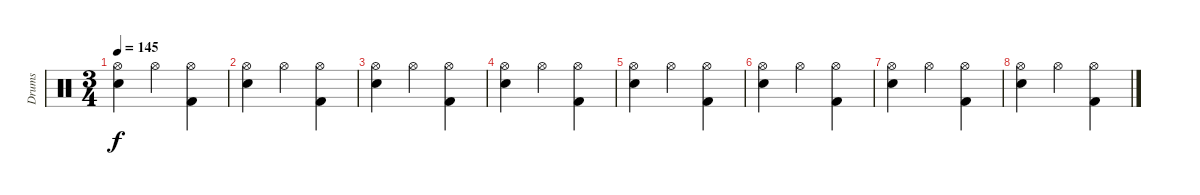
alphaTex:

\track ("Drums" "Drums") {instrument percussion}
\staff {score}
\articulation defaults
\ts (3 4)
\tempo 145
\clef neutral
\ks c
("Hi-Hat (open)" "Electric Snare (hit)").4{dy f} "Hi-Hat (open)".4 ("Hi-Hat (open)" "Kick (hit) 2").4 |
("Hi-Hat (open)" "Electric Snare (hit)").4 "Hi-Hat (open)".4 ("Hi-Hat (open)" "Kick (hit) 2").4 |
("Hi-Hat (open)" "Electric Snare (hit)").4 "Hi-Hat (open)".4 ("Hi-Hat (open)" "Kick (hit) 2").4 |
("Hi-Hat (open)" "Electric Snare (hit)").4 "Hi-Hat (open)".4 ("Hi-Hat (open)" "Kick (hit) 2").4 |
("Hi-Hat (open)" "Electric Snare (hit)").4 "Hi-Hat (open)".4 ("Hi-Hat (open)" "Kick (hit) 2").4 |
("Hi-Hat (open)" "Electric Snare (hit)").4 "Hi-Hat (open)".4 ("Hi-Hat (open)" "Kick (hit) 2").4 |
("Hi-Hat (open)" "Electric Snare (hit)").4 "Hi-Hat (open)".4 ("Hi-Hat (open)" "Kick (hit) 2").4 |
("Hi-Hat (open)" "Electric Snare (hit)").4 "Hi-Hat (open)".4 ("Hi-Hat (open)" "Kick (hit) 2").4
